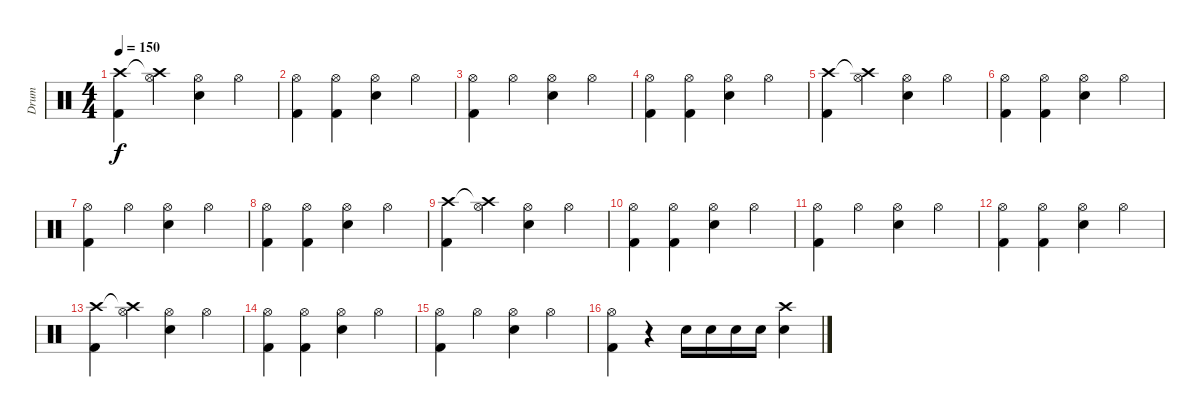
\track ("Drum" "Drum") {instrument percussion}
\staff {score}
\articulation defaults
\ts (4 4)
\tempo 150
\clef neutral
\ks c
("Crash high (hit)" "Kick (hit) 2").4{dy f} ("Crash high (hit)"{t} "Hi-Hat (open)").4 ("Hi-Hat (open)" "Snare (hit) 2").4 "Hi-Hat (open)".4 |
("Hi-Hat (open)" "Kick (hit) 2").4 ("Hi-Hat (open)" "Kick (hit) 2").4 ("Hi-Hat (open)" "Snare (hit) 2").4 "Hi-Hat (open)".4 |
("Hi-Hat (open)" "Kick (hit) 2").4 "Hi-Hat (open)".4 ("Hi-Hat (open)" "Snare (hit) 2").4 "Hi-Hat (open)".4 |
("Hi-Hat (open)" "Kick (hit) 2").4 ("Hi-Hat (open)" "Kick (hit) 2").4 ("Hi-Hat (open)" "Snare (hit) 2").4 "Hi-Hat (open)".4 |
("Crash high (hit)" "Kick (hit) 2").4 ("Crash high (hit)"{t} "Hi-Hat (open)").4 ("Hi-Hat (open)" "Snare (hit) 2").4 "Hi-Hat (open)".4 |
("Hi-Hat (open)" "Kick (hit) 2").4 ("Hi-Hat (open)" "Kick (hit) 2").4 ("Hi-Hat (open)" "Snare (hit) 2").4 "Hi-Hat (open)".4 |
("Hi-Hat (open)" "Kick (hit) 2").4 "Hi-Hat (open)".4 ("Hi-Hat (open)" "Snare (hit) 2").4 "Hi-Hat (open)".4 |
("Hi-Hat (open)" "Kick (hit) 2").4 ("Hi-Hat (open)" "Kick (hit) 2").4 ("Hi-Hat (open)" "Snare (hit) 2").4 "Hi-Hat (open)".4 |
("Crash high (hit)" "Kick (hit) 2").4 ("Crash high (hit)"{t} "Hi-Hat (open)").4 ("Hi-Hat (open)" "Snare (hit) 2").4 "Hi-Hat (open)".4 |
("Hi-Hat (open)" "Kick (hit) 2").4 ("Hi-Hat (open)" "Kick (hit) 2").4 ("Hi-Hat (open)" "Snare (hit) 2").4 "Hi-Hat (open)".4 |
("Hi-Hat (open)" "Kick (hit) 2").4 "Hi-Hat (open)".4 ("Hi-Hat (open)" "Snare (hit) 2").4 "Hi-Hat (open)".4 |
("Hi-Hat (open)" "Kick (hit) 2").4 ("Hi-Hat (open)" "Kick (hit) 2").4 ("Hi-Hat (open)" "Snare (hit) 2").4 "Hi-Hat (open)".4 |
("Crash high (hit)" "Kick (hit) 2").4 ("Crash high (hit)"{t} "Hi-Hat (open)").4 ("Hi-Hat (open)" "Snare (hit) 2").4 "Hi-Hat (open)".4 |
("Hi-Hat (open)" "Kick (hit) 2").4 ("Hi-Hat (open)" "Kick (hit) 2").4 ("Hi-Hat (open)" "Snare (hit) 2").4 "Hi-Hat (open)".4 |
("Hi-Hat (open)" "Kick (hit) 2").4 "Hi-Hat (open)".4 ("Hi-Hat (open)" "Snare (hit) 2").4 "Hi-Hat (open)".4 |
("Hi-Hat (open)" "Kick (hit) 2").4 r.4 "Snare (hit) 2".16 "Snare (hit) 2".16 "Snare (hit) 2".16 "Snare (hit) 2".16 ("Crash high (hit)" "Snare (hit) 2").4
